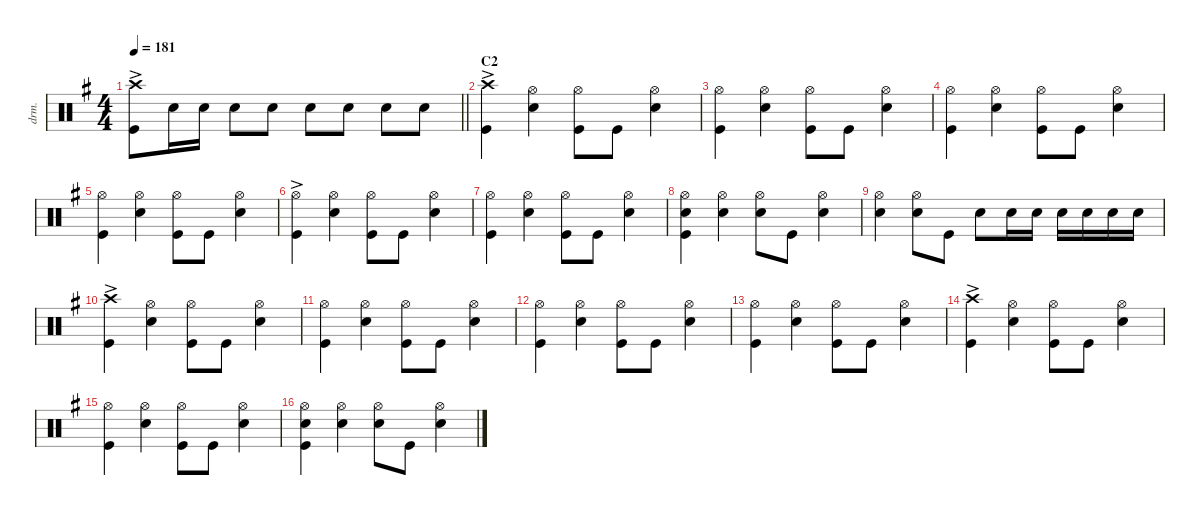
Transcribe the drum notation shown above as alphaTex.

\defaultSystemsLayout 4
\hideDynamics
\bracketExtendMode nobrackets
\track ("Drums" "drm.") {instrument percussion}
\staff {score}
\articulation defaults
\ts (4 4)
\tempo 181
\clef neutral
\barLineRight lightlight
\ks g
("Crash high (hit)"{ac acc forcenatural} "Kick (hit)"{acc forcenatural}).8{dy f} "Snare (hit) 2"{acc forcenatural}.16 "Snare (hit) 2"{acc forcenatural}.16 "Snare (hit) 2"{acc forcenatural}.8 "Snare (hit) 2"{acc forcenatural}.8 "Snare (hit) 2"{acc forcenatural}.8 "Snare (hit) 2"{acc forcenatural}.8 "Snare (hit) 2"{acc forcenatural}.8 "Snare (hit) 2"{acc forcenatural}.8 |
\section ("" "C2")
("Kick (hit)"{acc forcenatural} "Crash high (hit)"{ac acc forcenatural}).4 ("Hi-Hat (open)"{acc forcenatural} "Snare (hit) 2"{acc forcenatural}).4 ("Kick (hit)"{acc forcenatural} "Hi-Hat (open)"{acc forcenatural}).8 "Kick (hit)"{acc forcenatural}.8 ("Snare (hit) 2"{acc forcenatural} "Hi-Hat (open)"{acc forcenatural}).4 |
("Kick (hit)"{acc forcenatural} "Hi-Hat (open)"{acc forcenatural}).4 ("Hi-Hat (open)"{acc forcenatural} "Snare (hit) 2"{acc forcenatural}).4 ("Kick (hit)"{acc forcenatural} "Hi-Hat (open)"{acc forcenatural}).8 "Kick (hit)"{acc forcenatural}.8 ("Snare (hit) 2"{acc forcenatural} "Hi-Hat (open)"{acc forcenatural}).4 |
("Kick (hit)"{acc forcenatural} "Hi-Hat (open)"{acc forcenatural}).4 ("Hi-Hat (open)"{acc forcenatural} "Snare (hit) 2"{acc forcenatural}).4 ("Kick (hit)"{acc forcenatural} "Hi-Hat (open)"{acc forcenatural}).8 "Kick (hit)"{acc forcenatural}.8 ("Snare (hit) 2"{acc forcenatural} "Hi-Hat (open)"{acc forcenatural}).4 |
("Kick (hit)"{acc forcenatural} "Hi-Hat (open)"{acc forcenatural}).4 ("Hi-Hat (open)"{acc forcenatural} "Snare (hit) 2"{acc forcenatural}).4 ("Kick (hit)"{acc forcenatural} "Hi-Hat (open)"{acc forcenatural}).8 "Kick (hit)"{acc forcenatural}.8 ("Snare (hit) 2"{acc forcenatural} "Hi-Hat (open)"{acc forcenatural}).4 |
("Kick (hit)"{acc forcenatural} "Hi-Hat (open)"{ac acc forcenatural}).4 ("Hi-Hat (open)"{acc forcenatural} "Snare (hit) 2"{acc forcenatural}).4 ("Kick (hit)"{acc forcenatural} "Hi-Hat (open)"{acc forcenatural}).8 "Kick (hit)"{acc forcenatural}.8 ("Snare (hit) 2"{acc forcenatural} "Hi-Hat (open)"{acc forcenatural}).4 |
("Kick (hit)"{acc forcenatural} "Hi-Hat (open)"{acc forcenatural}).4 ("Hi-Hat (open)"{acc forcenatural} "Snare (hit) 2"{acc forcenatural}).4 ("Kick (hit)"{acc forcenatural} "Hi-Hat (open)"{acc forcenatural}).8 "Kick (hit)"{acc forcenatural}.8 ("Snare (hit) 2"{acc forcenatural} "Hi-Hat (open)"{acc forcenatural}).4 |
("Kick (hit)"{acc forcenatural} "Hi-Hat (open)"{acc forcenatural} "Snare (hit) 2"{acc forcenatural}).4 ("Hi-Hat (open)"{acc forcenatural} "Snare (hit) 2"{acc forcenatural}).4 ("Hi-Hat (open)"{acc forcenatural} "Snare (hit) 2"{acc forcenatural}).8 "Kick (hit)"{acc forcenatural}.8 ("Snare (hit) 2"{acc forcenatural} "Hi-Hat (open)"{acc forcenatural}).4 |
("Hi-Hat (open)"{acc forcenatural} "Snare (hit) 2"{acc forcenatural}).4 ("Hi-Hat (open)"{acc forcenatural} "Snare (hit) 2"{acc forcenatural}).8 "Kick (hit)"{acc forcenatural}.8 "Snare (hit) 2"{acc forcenatural}.8 "Snare (hit) 2"{acc forcenatural}.16 "Snare (hit) 2"{acc forcenatural}.16 "Snare (hit) 2"{acc forcenatural}.16 "Snare (hit) 2"{acc forcenatural}.16 "Snare (hit) 2"{acc forcenatural}.16 "Snare (hit) 2"{acc forcenatural}.16 |
("Kick (hit)"{acc forcenatural} "Crash high (hit)"{ac acc forcenatural}).4 ("Hi-Hat (open)"{acc forcenatural} "Snare (hit) 2"{acc forcenatural}).4 ("Kick (hit)"{acc forcenatural} "Hi-Hat (open)"{acc forcenatural}).8 "Kick (hit)"{acc forcenatural}.8 ("Snare (hit) 2"{acc forcenatural} "Hi-Hat (open)"{acc forcenatural}).4 |
("Kick (hit)"{acc forcenatural} "Hi-Hat (open)"{acc forcenatural}).4 ("Hi-Hat (open)"{acc forcenatural} "Snare (hit) 2"{acc forcenatural}).4 ("Kick (hit)"{acc forcenatural} "Hi-Hat (open)"{acc forcenatural}).8 "Kick (hit)"{acc forcenatural}.8 ("Snare (hit) 2"{acc forcenatural} "Hi-Hat (open)"{acc forcenatural}).4 |
("Kick (hit)"{acc forcenatural} "Hi-Hat (open)"{acc forcenatural}).4 ("Hi-Hat (open)"{acc forcenatural} "Snare (hit) 2"{acc forcenatural}).4 ("Kick (hit)"{acc forcenatural} "Hi-Hat (open)"{acc forcenatural}).8 "Kick (hit)"{acc forcenatural}.8 ("Snare (hit) 2"{acc forcenatural} "Hi-Hat (open)"{acc forcenatural}).4 |
("Kick (hit)"{acc forcenatural} "Hi-Hat (open)"{acc forcenatural}).4 ("Hi-Hat (open)"{acc forcenatural} "Snare (hit) 2"{acc forcenatural}).4 ("Kick (hit)"{acc forcenatural} "Hi-Hat (open)"{acc forcenatural}).8 "Kick (hit)"{acc forcenatural}.8 ("Snare (hit) 2"{acc forcenatural} "Hi-Hat (open)"{acc forcenatural}).4 |
("Kick (hit)"{acc forcenatural} "Crash high (hit)"{ac acc forcenatural}).4 ("Hi-Hat (open)"{acc forcenatural} "Snare (hit) 2"{acc forcenatural}).4 ("Kick (hit)"{acc forcenatural} "Hi-Hat (open)"{acc forcenatural}).8 "Kick (hit)"{acc forcenatural}.8 ("Snare (hit) 2"{acc forcenatural} "Hi-Hat (open)"{acc forcenatural}).4 |
("Kick (hit)"{acc forcenatural} "Hi-Hat (open)"{acc forcenatural}).4 ("Hi-Hat (open)"{acc forcenatural} "Snare (hit) 2"{acc forcenatural}).4 ("Kick (hit)"{acc forcenatural} "Hi-Hat (open)"{acc forcenatural}).8 "Kick (hit)"{acc forcenatural}.8 ("Snare (hit) 2"{acc forcenatural} "Hi-Hat (open)"{acc forcenatural}).4 |
("Kick (hit)"{acc forcenatural} "Hi-Hat (open)"{acc forcenatural} "Snare (hit) 2"{acc forcenatural}).4 ("Hi-Hat (open)"{acc forcenatural} "Snare (hit) 2"{acc forcenatural}).4 ("Hi-Hat (open)"{acc forcenatural} "Snare (hit) 2"{acc forcenatural}).8 "Kick (hit)"{acc forcenatural}.8 ("Snare (hit) 2"{acc forcenatural} "Hi-Hat (open)"{acc forcenatural}).4
